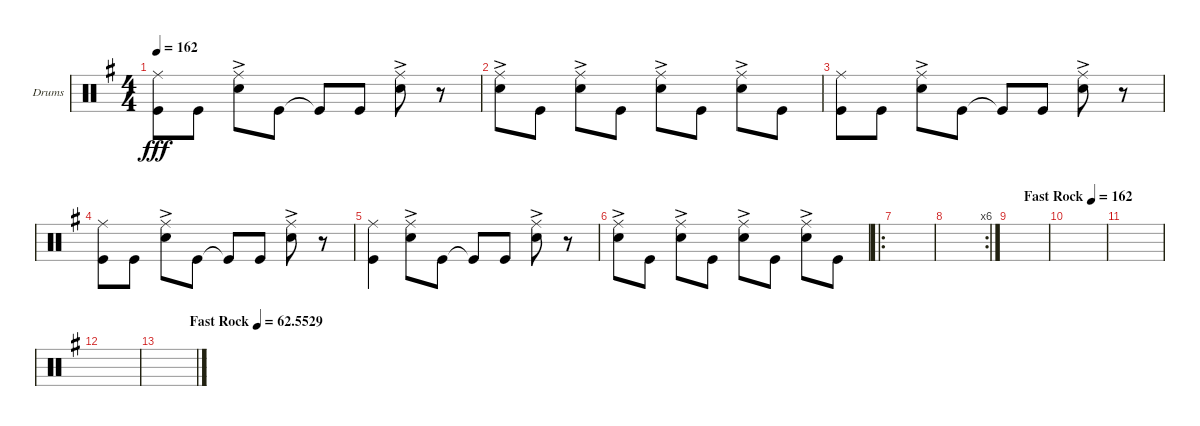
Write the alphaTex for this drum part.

\defaultSystemsLayout 4
\bracketExtendMode groupsimilarinstruments
\firstSystemTrackNameOrientation horizontal
\otherSystemsTrackNameOrientation horizontal
\track ("Drumkit" "Drums") {instrument percussion}
\staff {score}
\articulation defaults
\ts (4 4)
\tempo 162
\clef neutral
\ks g
("Kick (hit)" "Ride (middle)").8{dy fff} "Kick (hit)".8 ("Snare (hit) 2"{ac} "Ride (middle)").8 "Kick (hit)".8 "Kick (hit)"{t}.8 "Kick (hit)".8 ("Snare (hit) 2"{ac} "Ride (middle)").8 r.8 |
("Snare (hit) 2"{ac} "Ride (middle)").8 "Kick (hit)".8 ("Snare (hit) 2"{ac} "Ride (middle)").8 "Kick (hit)".8 ("Snare (hit) 2"{ac} "Ride (middle)").8 "Kick (hit)".8 ("Snare (hit) 2"{ac} "Ride (middle)").8 "Kick (hit)".8 |
("Kick (hit)" "Ride (middle)").8 "Kick (hit)".8 ("Snare (hit) 2"{ac} "Ride (middle)").8 "Kick (hit)".8 "Kick (hit)"{t}.8 "Kick (hit)".8 ("Snare (hit) 2"{ac} "Ride (middle)").8 r.8 |
("Kick (hit)" "Ride (middle)").8 "Kick (hit)".8 ("Snare (hit) 2"{ac} "Ride (middle)").8 "Kick (hit)".8 "Kick (hit)"{t}.8 "Kick (hit)".8 ("Snare (hit) 2"{ac} "Ride (middle)").8 r.8 |
("Kick (hit)" "Ride (middle)").4 ("Snare (hit) 2"{ac} "Ride (middle)").8 "Kick (hit)".8 "Kick (hit)"{t}.8 "Kick (hit)".8 ("Snare (hit) 2"{ac} "Ride (middle)").8 r.8 |
("Snare (hit) 2"{ac} "Ride (middle)").8 "Kick (hit)".8 ("Snare (hit) 2"{ac} "Ride (middle)").8 "Kick (hit)".8 ("Snare (hit) 2"{ac} "Ride (middle)").8 "Kick (hit)".8 ("Snare (hit) 2"{ac} "Ride (middle)").8 "Kick (hit)".8 |
\ro
|
\rc 6
|
\tempo (162 "Fast Rock" 0.3125)
|
|
|
|
\tempo (62.5529 "Fast Rock" 0.79375)
